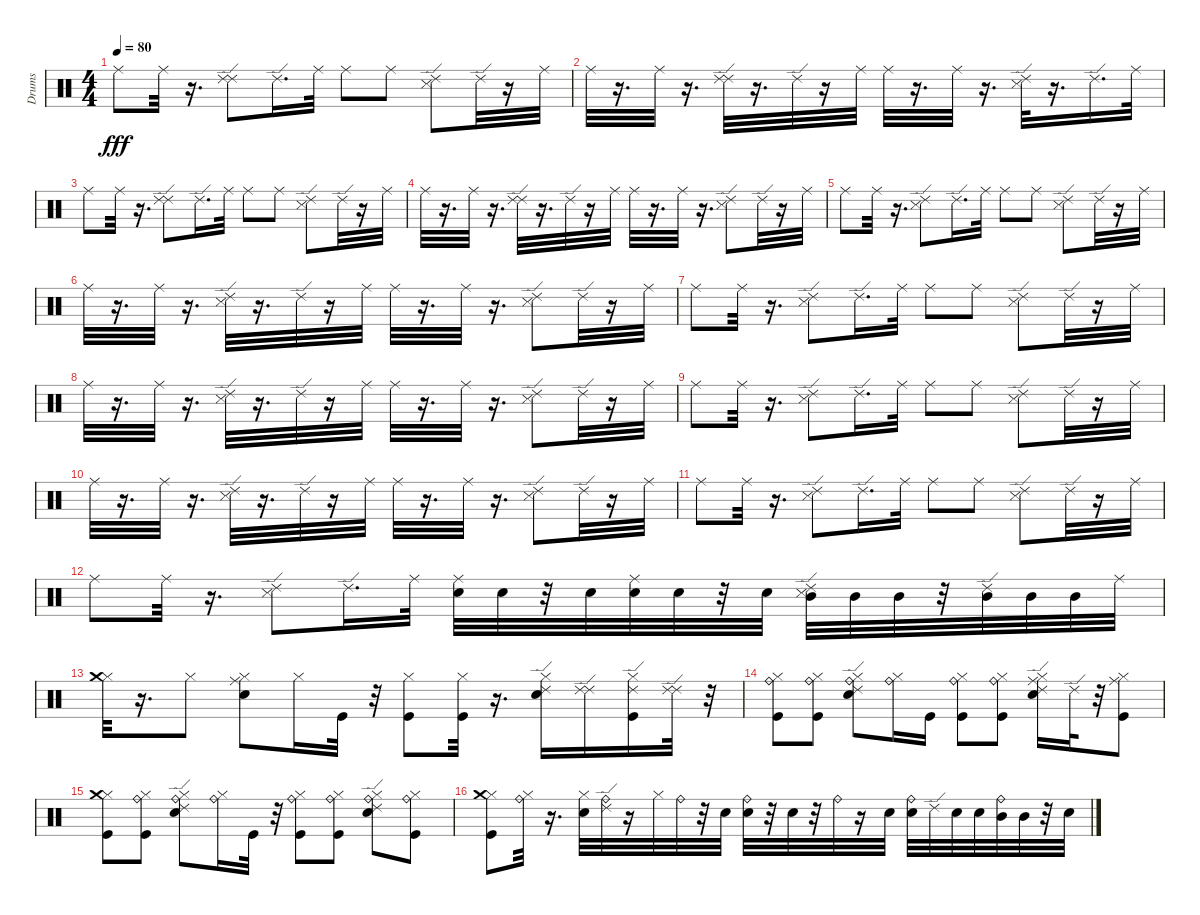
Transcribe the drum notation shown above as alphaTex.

\track ("Drums   " "Drums   ") {instrument percussion}
\staff {score}
\articulation defaults
\ts (4 4)
\tempo 80
\clef neutral
\ks c "Ride (middle)".8{dy fff} "Ride (middle)".32
r.16{d} ("Ride (edge) 2" "Ride (edge) 2").8 "Ride (edge) 2".16{d} "Ride (middle)".32 "Ride (middle)".8 "Ride (middle)".8 ("Snare (side stick) 3" "Ride (edge) 2").8 "Ride (edge) 2".32 r.16 "Ride (middle)".32 |
"Ride (middle)".32 r.16{d} "Ride (middle)".32 r.16{d} ("Ride (edge) 2" "Ride (edge) 2").32 r.16{d} "Ride (edge) 2".32 r.16 "Ride (middle)".32 "Ride (middle)".32 r.16{d} "Ride (middle)".32 r.16{d} ("Snare (side stick) 3" "Ride (edge) 2").32 r.16{d} "Ride (edge) 2".16{d} "Ride (middle)".32 |
"Ride (middle)".8 "Ride (middle)".32 r.16{d} ("Ride (edge) 2" "Ride (edge) 2").8 "Ride (edge) 2".16{d} "Ride (middle)".32 "Ride (middle)".8 "Ride (middle)".8 ("Snare (side stick) 3" "Ride (edge) 2").8 "Ride (edge) 2".32 r.16 "Ride (middle)".32 |
"Ride (middle)".32 r.16{d} "Ride (middle)".32 r.16{d} ("Ride (edge) 2" "Ride (edge) 2").32 r.16{d} "Ride (edge) 2".32 r.16 "Ride (middle)".32 "Ride (middle)".32 r.16{d} "Ride (middle)".32 r.16{d} ("Snare (side stick) 3" "Ride (edge) 2").8 "Ride (edge) 2".32 r.16 "Ride (middle)".32 |
"Ride (middle)".8 "Ride (middle)".32 r.16{d} ("Snare (side stick) 3" "Ride (edge) 2").8 "Ride (edge) 2".16{d} "Ride (middle)".32 "Ride (middle)".8 "Ride (middle)".8 ("Snare (side stick) 3" "Ride (edge) 2").8 "Ride (edge) 2".32 r.16 "Ride (middle)".32 |
"Ride (middle)".32 r.16{d} "Ride (middle)".32 r.16{d} ("Snare (side stick) 3" "Ride (edge) 2").32 r.16{d} "Ride (edge) 2".32 r.16 "Ride (middle)".32 "Ride (middle)".32 r.16{d} "Ride (middle)".32 r.16{d} ("Snare (side stick) 3" "Ride (edge) 2").8 "Ride (edge) 2".32 r.16 "Ride (middle)".32 |
"Ride (middle)".8 "Ride (middle)".32 r.16{d} ("Snare (side stick) 3" "Ride (edge) 2").8 "Ride (edge) 2".16{d} "Ride (middle)".32 "Ride (middle)".8 "Ride (middle)".8 ("Snare (side stick) 3" "Ride (edge) 2").8 "Ride (edge) 2".32 r.16 "Ride (middle)".32 |
"Ride (middle)".32 r.16{d} "Ride (middle)".32 r.16{d} ("Snare (side stick) 3" "Ride (edge) 2").32 r.16{d} "Ride (edge) 2".32 r.16 "Ride (middle)".32 "Ride (middle)".32 r.16{d} "Ride (middle)".32 r.16{d} ("Snare (side stick) 3" "Ride (edge) 2").8 "Ride (edge) 2".32 r.16 "Ride (middle)".32 |
"Ride (middle)".8 "Ride (middle)".32 r.16{d} ("Snare (side stick) 3" "Ride (edge) 2").8 "Ride (edge) 2".16{d} "Ride (middle)".32 "Ride (middle)".8 "Ride (middle)".8 ("Snare (side stick) 3" "Ride (edge) 2").8 "Ride (edge) 2".32 r.16 "Ride (middle)".32 |
"Ride (middle)".32 r.16{d} "Ride (middle)".32 r.16{d} ("Snare (side stick) 3" "Ride (edge) 2").32 r.16{d} "Ride (edge) 2".32 r.16 "Ride (middle)".32 "Ride (middle)".32 r.16{d} "Ride (middle)".32 r.16{d} ("Snare (side stick) 3" "Ride (edge) 2").8 "Ride (edge) 2".32 r.16 "Ride (middle)".32 |
"Ride (middle)".8 "Ride (middle)".32 r.16{d} ("Snare (side stick) 3" "Ride (edge) 2").8 "Ride (edge) 2".16{d} "Ride (middle)".32 "Ride (middle)".8 "Ride (middle)".8 ("Snare (side stick) 3" "Ride (edge) 2").8 "Ride (edge) 2".32 r.16 "Ride (middle)".32 |
"Ride (middle)".8 "Ride (middle)".32 r.16{d} ("Snare (side stick) 3" "Ride (edge) 2").8 "Ride (edge) 2".16{d volume 16} "Ride (middle)".32 ("Ride (middle)" "Snare (hit) 2").32 "Snare (hit) 2".32 r.32 "Snare (hit) 2".32 ("Snare (hit) 2" "Ride (middle)").32 "Snare (hit) 2".32 r.32 "Snare (hit) 2".32 ("Mid Tom (hit)" "Snare (side stick) 3" "Ride (edge) 2").32 "Mid Tom (hit)".32 "Mid Tom (hit)".32 r.32 ("Mid Tom (hit)" "Ride (edge) 2").32 "Mid Tom (hit)".32 "Mid Tom (hit)".32 "Ride (middle)".32 |
("Hi-Hat (closed)" "Crash medium (hit)").32 r.16{d} "Hi-Hat (closed)".8 ("Snare (hit) 2" "Hi-Hat (closed)" "Ride (middle)").8 "Hi-Hat (closed)".16 "Kick (hit)".32 r.32 ("Kick (hit)" "Hi-Hat (closed)").8 ("Kick (hit)" "Hi-Hat (closed)").32 r.16{d} ("Snare (hit) 2" "Hi-Hat (closed)" "Ride (edge) 2").16 ("Ride (edge) 2" "Ride (edge) 2").16 ("Kick (hit)" "Hi-Hat (closed)" "Ride (edge) 2").16 ("Ride (edge) 2" "Ride (edge) 2").32 r.32 |
("Kick (hit)" "Hi-Hat (closed)" "Ride (bell)").8 ("Kick (hit)" "Hi-Hat (closed)" "Ride (bell)").8 ("Snare (hit) 2" "Hi-Hat (closed)" "Ride (bell)" "Ride (edge) 2").8 ("Hi-Hat (closed)" "Ride (bell)").16 "Kick (hit)".16 ("Kick (hit)" "Hi-Hat (closed)" "Ride (bell)").8 ("Kick (hit)" "Hi-Hat (closed)" "Ride (bell)").8 ("Snare (hit) 2" "Hi-Hat (closed)" "Ride (middle)" "Ride (edge) 2").16 "Ride (edge) 2".32 r.32 ("Kick (hit)" "Hi-Hat (closed)" "Ride (middle)").8 |
("Kick (hit)" "Hi-Hat (closed)" "Crash medium (hit)").8 ("Kick (hit)" "Hi-Hat (closed)" "Ride (bell)").8 ("Snare (hit) 2" "Hi-Hat (closed)" "Ride (bell)" "Ride (edge) 2").8 ("Hi-Hat (closed)" "Ride (bell)").16 "Kick (hit)".32 r.32 ("Kick (hit)" "Hi-Hat (closed)" "Ride (bell)").8 ("Kick (hit)" "Hi-Hat (closed)" "Ride (bell)").8 ("Snare (hit) 2" "Hi-Hat (closed)" "Ride (bell)" "Ride (edge) 2").8 ("Kick (hit)" "Hi-Hat (closed)" "Ride (bell)").8 |
("Kick (hit)" "Hi-Hat (closed)" "Crash medium (hit)").8 ("Hi-Hat (closed)" "Ride (bell)").32 r.16{d} ("Hi-Hat (closed)" "Snare (hit) 2").32 ("Ride (bell)" "Ride (edge) 2").32 r.16 "Hi-Hat (closed)".32 "Ride (bell)".32 r.32 "Snare (hit) 2".32 ("Snare (hit) 2" "Ride (bell)").32 r.32 "Snare (hit) 2".32 r.32 "Ride (bell)".32 r.16 "Snare (hit) 2".32 ("Snare (hit) 2" "Ride (bell)").32 "Ride (edge) 2".32 "Snare (hit) 2".32 "Snare (hit) 2".32 ("Mid Tom (hit)" "Ride (bell)").32 "Mid Tom (hit)".32 r.32 "Snare (hit) 2".32
